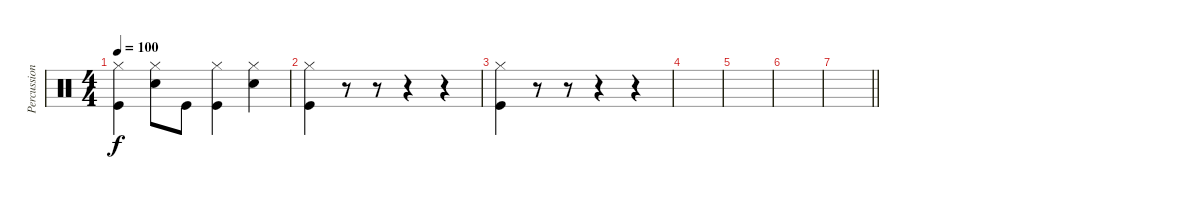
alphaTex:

\track ("Percussion" "Percussion") {instrument percussion}
\staff {score}
\articulation defaults
\ts (4 4)
\tempo 100
\clef neutral
\ks c
("Hi-Hat (closed)" "Kick (hit)").4{dy f} ("Hi-Hat (closed)" "Snare (hit) 2").8 "Kick (hit)".8 ("Hi-Hat (closed)" "Kick (hit)").4 ("Snare (hit) 2" "Hi-Hat (closed)").4 |
("Hi-Hat (closed)" "Kick (hit)").4 r.8 r.8 r.4 r.4 |
("Hi-Hat (closed)" "Kick (hit)").4 r.8 r.8 r.4 r.4 |
|
|
|
\barLineRight lightlight
